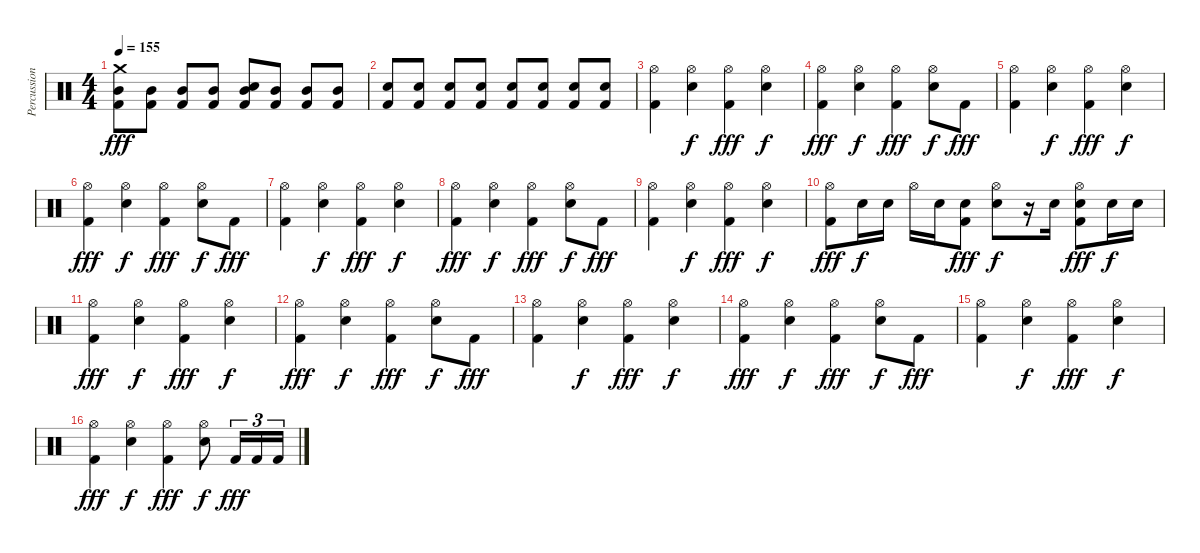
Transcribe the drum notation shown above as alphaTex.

\track ("Percussion" "Percussion") {instrument percussion}
\staff {score}
\articulation defaults
\ts (4 4)
\tempo 155
\clef neutral
\ks c
("Crash medium (hit)" "Mid Tom (hit)" "Kick (hit) 2").8{dy fff} ("Mid Tom (hit)" "Kick (hit) 2").8 ("Mid Tom (hit)" "Kick (hit) 2").8 ("Mid Tom (hit)" "Kick (hit) 2").8 ("Mid Tom (hit)" "Snare (hit) 2" "Kick (hit) 2").8 ("Mid Tom (hit)" "Kick (hit) 2").8 ("Mid Tom (hit)" "Kick (hit) 2").8 ("Mid Tom (hit)" "Kick (hit) 2").8 |
("Snare (hit) 2" "Kick (hit) 2").8 ("Snare (hit) 2" "Kick (hit) 2").8 ("Snare (hit) 2" "Kick (hit) 2").8 ("Snare (hit) 2" "Kick (hit) 2").8 ("Snare (hit) 2" "Kick (hit) 2").8 ("Snare (hit) 2" "Kick (hit) 2").8 ("Snare (hit) 2" "Kick (hit) 2").8 ("Snare (hit) 2" "Kick (hit) 2").8 |
("Hi-Hat (open)" "Kick (hit) 2").4 ("Hi-Hat (open)" "Snare (hit) 2").4{dy f} ("Hi-Hat (open)" "Kick (hit) 2").4{dy fff} ("Hi-Hat (open)" "Snare (hit) 2").4{dy f} |
("Hi-Hat (open)" "Kick (hit) 2").4{dy fff} ("Hi-Hat (open)" "Snare (hit) 2").4{dy f} ("Hi-Hat (open)" "Kick (hit) 2").4{dy fff} ("Hi-Hat (open)" "Snare (hit) 2").8{dy f} "Kick (hit) 2".8{dy fff} |
("Hi-Hat (open)" "Kick (hit) 2").4 ("Hi-Hat (open)" "Snare (hit) 2").4{dy f} ("Hi-Hat (open)" "Kick (hit) 2").4{dy fff} ("Hi-Hat (open)" "Snare (hit) 2").4{dy f} |
("Hi-Hat (open)" "Kick (hit) 2").4{dy fff} ("Hi-Hat (open)" "Snare (hit) 2").4{dy f} ("Hi-Hat (open)" "Kick (hit) 2").4{dy fff} ("Hi-Hat (open)" "Snare (hit) 2").8{dy f} "Kick (hit) 2".8{dy fff} |
("Hi-Hat (open)" "Kick (hit) 2").4 ("Hi-Hat (open)" "Snare (hit) 2").4{dy f} ("Hi-Hat (open)" "Kick (hit) 2").4{dy fff} ("Hi-Hat (open)" "Snare (hit) 2").4{dy f} |
("Hi-Hat (open)" "Kick (hit) 2").4{dy fff} ("Hi-Hat (open)" "Snare (hit) 2").4{dy f} ("Hi-Hat (open)" "Kick (hit) 2").4{dy fff} ("Hi-Hat (open)" "Snare (hit) 2").8{dy f} "Kick (hit) 2".8{dy fff} |
("Hi-Hat (open)" "Kick (hit) 2").4 ("Hi-Hat (open)" "Snare (hit) 2").4{dy f} ("Hi-Hat (open)" "Kick (hit) 2").4{dy fff} ("Hi-Hat (open)" "Snare (hit) 2").4{dy f} |
("Hi-Hat (open)" "Kick (hit) 2").8{dy fff} "Snare (hit) 2".16{dy f} "Snare (hit) 2".16 "Hi-Hat (open)".16 "Snare (hit) 2".16 ("Snare (hit) 2" "Kick (hit) 2").8{dy fff} ("Hi-Hat (open)" "Snare (hit) 2").8{dy f} r.16 "Snare (hit) 2".16 ("Hi-Hat (open)" "Snare (hit) 2" "Kick (hit) 2").8{dy fff} "Snare (hit) 2".16{dy f} "Snare (hit) 2".16 |
("Hi-Hat (open)" "Kick (hit) 2").4{dy fff} ("Hi-Hat (open)" "Snare (hit) 2").4{dy f} ("Hi-Hat (open)" "Kick (hit) 2").4{dy fff} ("Hi-Hat (open)" "Snare (hit) 2").4{dy f} |
("Hi-Hat (open)" "Kick (hit) 2").4{dy fff} ("Hi-Hat (open)" "Snare (hit) 2").4{dy f} ("Hi-Hat (open)" "Kick (hit) 2").4{dy fff} ("Hi-Hat (open)" "Snare (hit) 2").8{dy f} "Kick (hit) 2".8{dy fff} |
("Hi-Hat (open)" "Kick (hit) 2").4 ("Hi-Hat (open)" "Snare (hit) 2").4{dy f} ("Hi-Hat (open)" "Kick (hit) 2").4{dy fff} ("Hi-Hat (open)" "Snare (hit) 2").4{dy f} |
("Hi-Hat (open)" "Kick (hit) 2").4{dy fff} ("Hi-Hat (open)" "Snare (hit) 2").4{dy f} ("Hi-Hat (open)" "Kick (hit) 2").4{dy fff} ("Hi-Hat (open)" "Snare (hit) 2").8{dy f} "Kick (hit) 2".8{dy fff} |
("Hi-Hat (open)" "Kick (hit) 2").4 ("Hi-Hat (open)" "Snare (hit) 2").4{dy f} ("Hi-Hat (open)" "Kick (hit) 2").4{dy fff} ("Hi-Hat (open)" "Snare (hit) 2").4{dy f} |
("Hi-Hat (open)" "Kick (hit) 2").4{dy fff} ("Hi-Hat (open)" "Snare (hit) 2").4{dy f} ("Hi-Hat (open)" "Kick (hit) 2").4{dy fff} ("Hi-Hat (open)" "Snare (hit) 2").8{dy f} "Kick (hit) 2".16{tu (3 2) dy fff} "Kick (hit) 2".16{tu (3 2)} "Kick (hit) 2".16{tu (3 2)}
